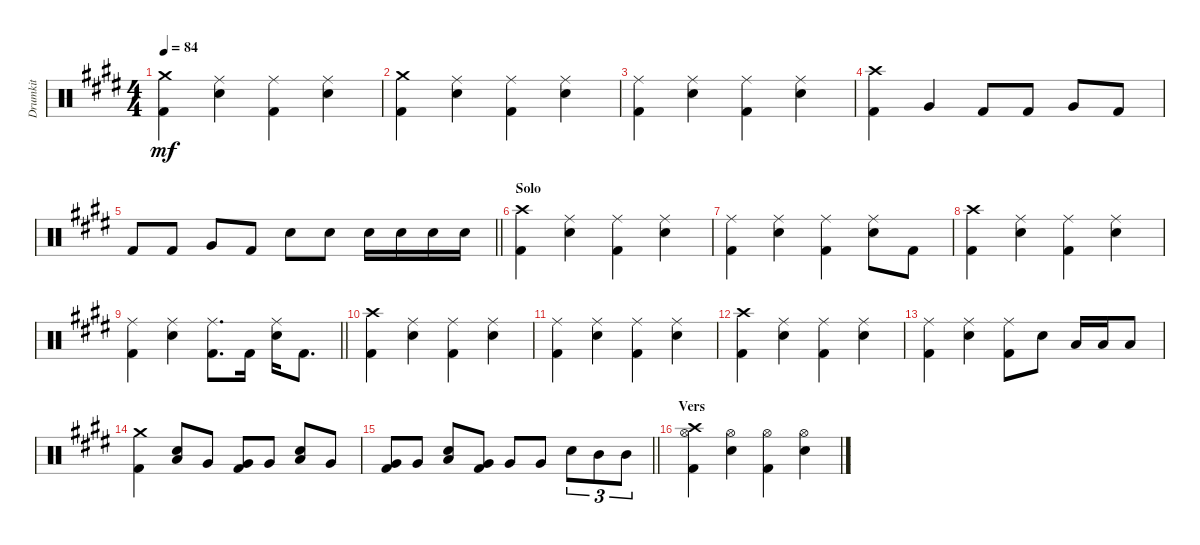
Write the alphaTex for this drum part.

\track ("Drumkit" "Drumkit") {instrument percussion}
\staff {score}
\articulation defaults
\ts (4 4)
\tempo 84
\clef neutral
\ks c#minor
("Crash medium (hit)" "Kick (hit) 2").4{dy mf} ("Ride (middle)" "Snare (hit) 2").4 ("Ride (middle)" "Kick (hit) 2").4 ("Ride (middle)" "Snare (hit) 2").4 |
("Crash medium (hit)" "Kick (hit) 2").4 ("Ride (middle)" "Snare (hit) 2").4 ("Ride (middle)" "Kick (hit) 2").4 ("Ride (middle)" "Snare (hit) 2").4 |
("Kick (hit) 2" "Ride (middle)").4 ("Ride (middle)" "Snare (hit) 2").4 ("Ride (middle)" "Kick (hit) 2").4 ("Ride (middle)" "Snare (hit) 2").4 |
("Crash high (hit)" "Kick (hit) 2").4 "Very Low Tom (hit)".4 "Kick (hit) 2".8 "Kick (hit) 2".8 "Very Low Tom (hit)".8 "Kick (hit) 2".8 |
\barLineRight lightlight "Kick (hit) 2".8 "Kick (hit) 2".8 "Very Low Tom (hit)".8 "Kick (hit) 2".8 "Snare (hit) 2".8 "Snare (hit) 2".8 "Snare (hit) 2".16 "Snare (hit) 2".16 "Snare (hit) 2".16 "Snare (hit) 2".16
|
\section ("" "Solo")
("Kick (hit) 2" "Crash high (hit)").4 ("Ride (middle)" "Snare (hit) 2").4 ("Ride (middle)" "Kick (hit) 2").4 ("Ride (middle)" "Snare (hit) 2").4 |
("Kick (hit) 2" "Ride (middle)").4 ("Ride (middle)" "Snare (hit) 2").4 ("Ride (middle)" "Kick (hit) 2").4 ("Ride (middle)" "Snare (hit) 2").8 "Kick (hit) 2".8 |
("Kick (hit) 2" "Crash high (hit)").4 ("Ride (middle)" "Snare (hit) 2").4 ("Ride (middle)" "Kick (hit) 2").4 ("Ride (middle)" "Snare (hit) 2").4 |
\barLineRight lightlight
("Kick (hit) 2" "Ride (middle)").4 ("Ride (middle)" "Snare (hit) 2").4 ("Ride (middle)" "Kick (hit) 2").8{d} "Kick (hit) 2".16 ("Ride (middle)" "Snare (hit) 2").16 "Kick (hit) 2".8{d} |
("Kick (hit) 2" "Crash high (hit)").4 ("Ride (middle)" "Snare (hit) 2").4 ("Ride (middle)" "Kick (hit) 2").4 ("Ride (middle)" "Snare (hit) 2").4 |
("Kick (hit) 2" "Ride (middle)").4 ("Ride (middle)" "Snare (hit) 2").4 ("Ride (middle)" "Kick (hit) 2").4 ("Ride (middle)" "Snare (hit) 2").4 |
("Kick (hit) 2" "Crash high (hit)").4 ("Ride (middle)" "Snare (hit) 2").4 ("Ride (middle)" "Kick (hit) 2").4 ("Ride (middle)" "Snare (hit) 2").4 |
("Kick (hit) 2" "Ride (middle)").4 ("Ride (middle)" "Snare (hit) 2").4 ("Ride (middle)" "Kick (hit) 2").8 "Snare (hit) 2".8 "Low Tom (hit)".16 "Low Tom (hit)".16 "Low Tom (hit)".8 |
("Crash medium (hit)" "Kick (hit) 2").4 ("Snare (hit) 2" "Low Tom (hit)").8 "Very Low Tom (hit)".8 ("Very Low Tom (hit)" "Kick (hit) 2").8 "Very Low Tom (hit)".8 ("Snare (hit) 2" "Low Tom (hit)").8 "Very Low Tom (hit)".8 |
\barLineRight lightlight
("Very Low Tom (hit)" "Kick (hit) 2").8 "Very Low Tom (hit)".8 ("Snare (hit) 2" "Low Tom (hit)").8 ("Very Low Tom (hit)" "Kick (hit) 2").8 "Very Low Tom (hit)".8 "Very Low Tom (hit)".8 "Snare (hit) 2".8{tu (3 2)} "Mid Tom (hit)".8{tu (3 2)} "Mid Tom (hit)".8{tu (3 2)} |
\section ("" "Vers")
("Crash high (hit)" "Kick (hit) 2" "Hi-Hat (open)").4 ("Hi-Hat (open)" "Snare (hit) 2").4 ("Hi-Hat (open)" "Kick (hit) 2").4 ("Hi-Hat (open)" "Snare (hit) 2").4
